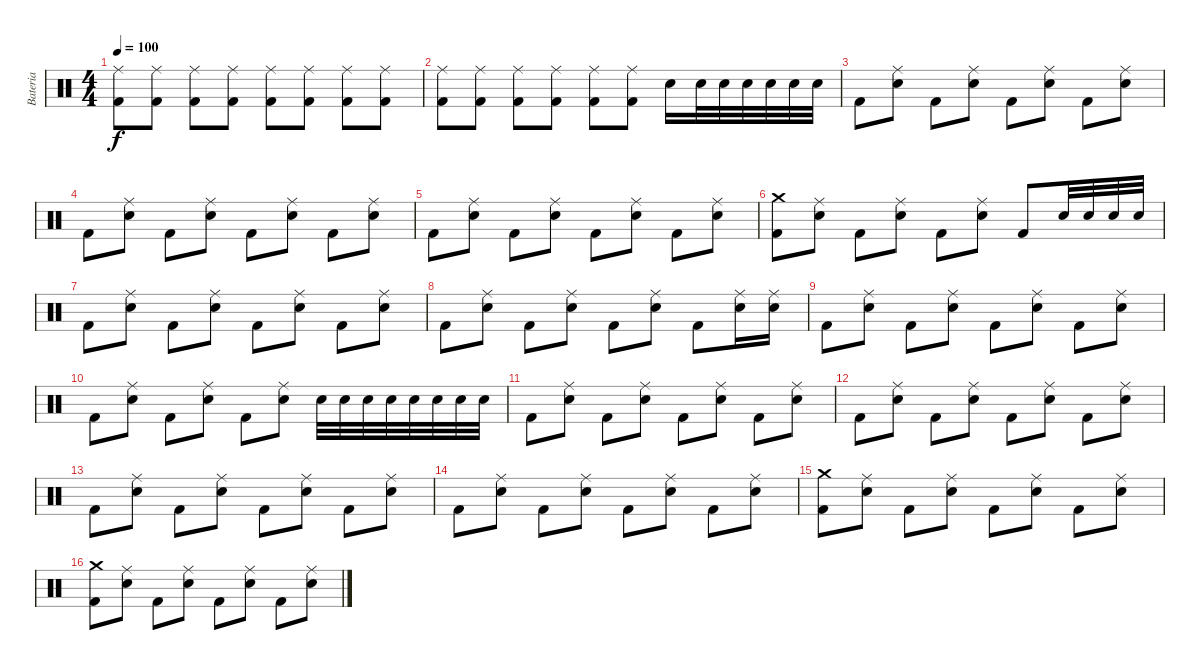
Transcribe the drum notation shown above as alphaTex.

\track ("Bateria" "Bateria") {instrument percussion}
\staff {score}
\articulation defaults
\ts (4 4)
\tempo 100
\clef neutral
\ks c
("Ride (middle)" "Kick (hit) 2").8{dy f} ("Ride (middle)" "Kick (hit) 2").8 ("Ride (middle)" "Kick (hit) 2").8 ("Ride (middle)" "Kick (hit) 2").8 ("Ride (middle)" "Kick (hit) 2").8 ("Ride (middle)" "Kick (hit) 2").8 ("Ride (middle)" "Kick (hit) 2").8 ("Ride (middle)" "Kick (hit) 2").8 |
("Ride (middle)" "Kick (hit) 2").8 ("Ride (middle)" "Kick (hit) 2").8 ("Ride (middle)" "Kick (hit) 2").8 ("Ride (middle)" "Kick (hit) 2").8 ("Ride (middle)" "Kick (hit) 2").8 ("Ride (middle)" "Kick (hit) 2").8 "Snare (hit) 2".16 "Snare (hit) 2".32 "Snare (hit) 2".32 "Snare (hit) 2".32 "Snare (hit) 2".32 "Snare (hit) 2".32 "Snare (hit) 2".32 |
"Kick (hit) 2".8 ("Ride (middle)" "Snare (hit) 2").8 "Kick (hit) 2".8 ("Ride (middle)" "Snare (hit) 2").8 "Kick (hit) 2".8 ("Ride (middle)" "Snare (hit) 2").8 "Kick (hit) 2".8 ("Ride (middle)" "Snare (hit) 2").8 |
"Kick (hit) 2".8 ("Ride (middle)" "Snare (hit) 2").8 "Kick (hit) 2".8 ("Ride (middle)" "Snare (hit) 2").8 "Kick (hit) 2".8 ("Ride (middle)" "Snare (hit) 2").8 "Kick (hit) 2".8 ("Ride (middle)" "Snare (hit) 2").8 |
"Kick (hit) 2".8 ("Ride (middle)" "Snare (hit) 2").8 "Kick (hit) 2".8 ("Ride (middle)" "Snare (hit) 2").8 "Kick (hit) 2".8 ("Ride (middle)" "Snare (hit) 2").8 "Kick (hit) 2".8 ("Ride (middle)" "Snare (hit) 2").8 |
("Crash medium (hit)" "Kick (hit) 2").8 ("Ride (middle)" "Snare (hit) 2").8 "Kick (hit) 2".8 ("Ride (middle)" "Snare (hit) 2").8 "Kick (hit) 2".8 ("Ride (middle)" "Snare (hit) 2").8 "Kick (hit) 2".8 "Snare (hit) 2".32 "Snare (hit) 2".32 "Snare (hit) 2".32 "Snare (hit) 2".32 |
"Kick (hit) 2".8 ("Ride (middle)" "Snare (hit) 2").8 "Kick (hit) 2".8 ("Ride (middle)" "Snare (hit) 2").8 "Kick (hit) 2".8 ("Ride (middle)" "Snare (hit) 2").8 "Kick (hit) 2".8 ("Ride (middle)" "Snare (hit) 2").8 |
"Kick (hit) 2".8 ("Ride (middle)" "Snare (hit) 2").8 "Kick (hit) 2".8 ("Ride (middle)" "Snare (hit) 2").8 "Kick (hit) 2".8 ("Ride (middle)" "Snare (hit) 2").8 "Kick (hit) 2".8 ("Ride (middle)" "Snare (hit) 2").16 ("Ride (middle)" "Snare (hit) 2").16 |
"Kick (hit) 2".8 ("Ride (middle)" "Snare (hit) 2").8 "Kick (hit) 2".8 ("Ride (middle)" "Snare (hit) 2").8 "Kick (hit) 2".8 ("Ride (middle)" "Snare (hit) 2").8 "Kick (hit) 2".8 ("Ride (middle)" "Snare (hit) 2").8 |
"Kick (hit) 2".8 ("Ride (middle)" "Snare (hit) 2").8 "Kick (hit) 2".8 ("Ride (middle)" "Snare (hit) 2").8 "Kick (hit) 2".8 ("Ride (middle)" "Snare (hit) 2").8 "Snare (hit) 2".32 "Snare (hit) 2".32 "Snare (hit) 2".32 "Snare (hit) 2".32 "Snare (hit) 2".32 "Snare (hit) 2".32 "Snare (hit) 2".32 "Snare (hit) 2".32 |
"Kick (hit) 2".8 ("Ride (middle)" "Snare (hit) 2").8 "Kick (hit) 2".8 ("Ride (middle)" "Snare (hit) 2").8 "Kick (hit) 2".8 ("Ride (middle)" "Snare (hit) 2").8 "Kick (hit) 2".8 ("Ride (middle)" "Snare (hit) 2").8 |
"Kick (hit) 2".8 ("Ride (middle)" "Snare (hit) 2").8 "Kick (hit) 2".8 ("Ride (middle)" "Snare (hit) 2").8 "Kick (hit) 2".8 ("Ride (middle)" "Snare (hit) 2").8 "Kick (hit) 2".8 ("Ride (middle)" "Snare (hit) 2").8 |
"Kick (hit) 2".8 ("Ride (middle)" "Snare (hit) 2").8 "Kick (hit) 2".8 ("Ride (middle)" "Snare (hit) 2").8 "Kick (hit) 2".8 ("Ride (middle)" "Snare (hit) 2").8 "Kick (hit) 2".8 ("Ride (middle)" "Snare (hit) 2").8 |
"Kick (hit) 2".8 ("Ride (middle)" "Snare (hit) 2").8 "Kick (hit) 2".8 ("Ride (middle)" "Snare (hit) 2").8 "Kick (hit) 2".8 ("Ride (middle)" "Snare (hit) 2").8 "Kick (hit) 2".8 ("Ride (middle)" "Snare (hit) 2").8 |
("Crash medium (hit)" "Kick (hit) 2").8 ("Ride (middle)" "Snare (hit) 2").8 "Kick (hit) 2".8 ("Ride (middle)" "Snare (hit) 2").8 "Kick (hit) 2".8 ("Ride (middle)" "Snare (hit) 2").8 "Kick (hit) 2".8 ("Ride (middle)" "Snare (hit) 2").8 |
("Crash medium (hit)" "Kick (hit) 2").8 ("Ride (middle)" "Snare (hit) 2").8 "Kick (hit) 2".8 ("Ride (middle)" "Snare (hit) 2").8 "Kick (hit) 2".8 ("Ride (middle)" "Snare (hit) 2").8 "Kick (hit) 2".8 ("Ride (middle)" "Snare (hit) 2").8
